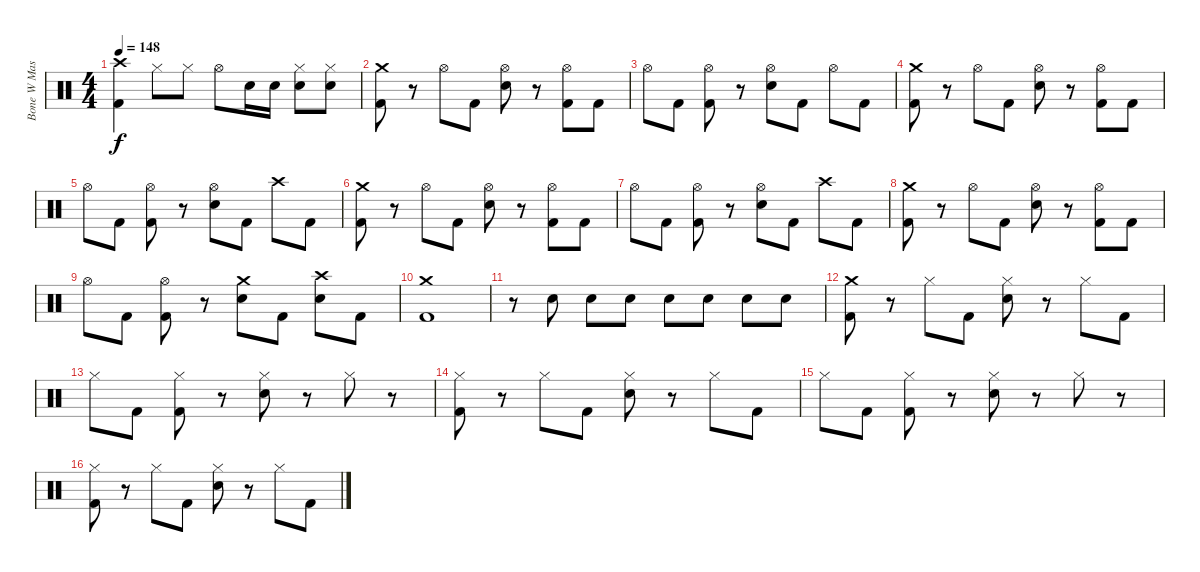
\track ("Bone W Mashine" "Bone W Mas") {instrument percussion}
\staff {score}
\articulation defaults
\ts (4 4)
\tempo 148
\clef neutral
\ks c
("Crash high (hit)" "Kick (hit) 2").4{dy f} "Hi-Hat (closed)".8 "Hi-Hat (closed)".8 "Hi-Hat (open)".8 "Electric Snare (hit)".16 "Electric Snare (hit)".16 ("Hi-Hat (closed)" "Electric Snare (hit)").8 ("Hi-Hat (closed)" "Electric Snare (hit)").8 |
("Crash medium (hit)" "Kick (hit) 2").8 r.8 "Hi-Hat (open)".8 "Kick (hit) 2".8 ("Hi-Hat (open)" "Electric Snare (hit)").8 r.8 ("Hi-Hat (open)" "Kick (hit) 2").8 "Kick (hit) 2".8 |
"Hi-Hat (open)".8 "Kick (hit) 2".8 ("Hi-Hat (open)" "Kick (hit) 2").8 r.8 ("Hi-Hat (open)" "Electric Snare (hit)").8 "Kick (hit) 2".8 "Hi-Hat (open)".8 "Kick (hit) 2".8 |
("Crash medium (hit)" "Kick (hit) 2").8 r.8 "Hi-Hat (open)".8 "Kick (hit) 2".8 ("Hi-Hat (open)" "Electric Snare (hit)").8 r.8 ("Hi-Hat (open)" "Kick (hit) 2").8 "Kick (hit) 2".8 |
"Hi-Hat (open)".8 "Kick (hit) 2".8 ("Hi-Hat (open)" "Kick (hit) 2").8 r.8 ("Hi-Hat (open)" "Electric Snare (hit)").8 "Kick (hit) 2".8 "Crash high (hit)".8 "Kick (hit) 2".8 |
("Crash medium (hit)" "Kick (hit) 2").8 r.8 "Hi-Hat (open)".8 "Kick (hit) 2".8 ("Hi-Hat (open)" "Electric Snare (hit)").8 r.8 ("Hi-Hat (open)" "Kick (hit) 2").8 "Kick (hit) 2".8 |
"Hi-Hat (open)".8 "Kick (hit) 2".8 ("Hi-Hat (open)" "Kick (hit) 2").8 r.8 ("Hi-Hat (open)" "Electric Snare (hit)").8 "Kick (hit) 2".8 "Crash high (hit)".8 "Kick (hit) 2".8 |
("Crash medium (hit)" "Kick (hit) 2").8 r.8 "Hi-Hat (open)".8 "Kick (hit) 2".8 ("Hi-Hat (open)" "Electric Snare (hit)").8 r.8 ("Hi-Hat (open)" "Kick (hit) 2").8 "Kick (hit) 2".8 |
"Hi-Hat (open)".8 "Kick (hit) 2".8 ("Hi-Hat (open)" "Kick (hit) 2").8 r.8 ("Crash medium (hit)" "Electric Snare (hit)").8 "Kick (hit) 2".8 ("Crash high (hit)" "Electric Snare (hit)").8 "Kick (hit) 2".8 |
("Crash medium (hit)" "Kick (hit) 2").1 |
r.8 "Electric Snare (hit)".8 "Electric Snare (hit)".8 "Electric Snare (hit)".8 "Electric Snare (hit)".8 "Electric Snare (hit)".8 "Electric Snare (hit)".8 "Electric Snare (hit)".8 |
("Crash medium (hit)" "Kick (hit) 2").8 r.8 "Hi-Hat (closed)".8 "Kick (hit) 2".8 ("Hi-Hat (closed)" "Electric Snare (hit)").8 r.8 "Hi-Hat (closed)".8 "Kick (hit) 2".8 |
"Hi-Hat (closed)".8 "Kick (hit) 2".8 ("Hi-Hat (closed)" "Kick (hit) 2").8 r.8 ("Hi-Hat (closed)" "Electric Snare (hit)").8 r.8 "Hi-Hat (closed)".8 r.8 |
("Hi-Hat (closed)" "Kick (hit) 2").8 r.8 "Hi-Hat (closed)".8 "Kick (hit) 2".8 ("Hi-Hat (closed)" "Electric Snare (hit)").8 r.8 "Hi-Hat (closed)".8 "Kick (hit) 2".8 |
"Hi-Hat (closed)".8 "Kick (hit) 2".8 ("Hi-Hat (closed)" "Kick (hit) 2").8 r.8 ("Hi-Hat (closed)" "Electric Snare (hit)").8 r.8 "Hi-Hat (closed)".8 r.8 |
("Hi-Hat (closed)" "Kick (hit) 2").8 r.8 "Hi-Hat (closed)".8 "Kick (hit) 2".8 ("Hi-Hat (closed)" "Electric Snare (hit)").8 r.8 "Hi-Hat (closed)".8 "Kick (hit) 2".8
